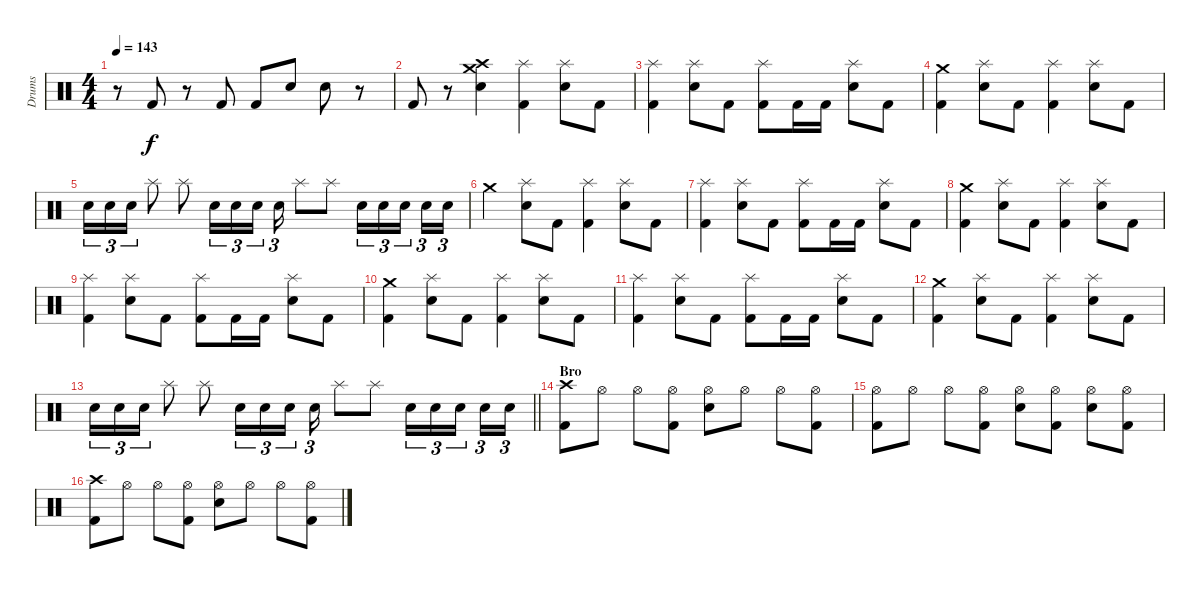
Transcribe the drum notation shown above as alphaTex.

\track ("Drums" "Drums") {instrument percussion}
\staff {score}
\articulation defaults
\ts (4 4)
\tempo 143
\clef neutral
\ks c
r.8{dy f} "Kick (hit) 2".8 r.8 "Kick (hit) 2".8 "Kick (hit) 2".8 "Snare (hit) 2".8 "Snare (hit) 2".8 r.8 |
"Kick (hit) 2".8 r.8 ("Crash high (hit)" "Crash medium (hit)" "Snare (hit) 2").4 ("Splash (hit)" "Kick (hit) 2").4 ("Splash (hit)" "Snare (hit) 2").8 "Kick (hit) 2".8 |
("Splash (hit)" "Kick (hit) 2").4 ("Splash (hit)" "Snare (hit) 2").8 "Kick (hit) 2".8 ("Splash (hit)" "Kick (hit) 2").8 "Kick (hit) 2".16 "Kick (hit) 2".16 ("Splash (hit)" "Snare (hit) 2").8 "Kick (hit) 2".8 |
("Crash medium (hit)" "Kick (hit) 2").4 ("Splash (hit)" "Snare (hit) 2").8 "Kick (hit) 2".8 ("Splash (hit)" "Kick (hit) 2").4 ("Splash (hit)" "Snare (hit) 2").8 "Kick (hit) 2".8 |
"Snare (hit) 2".16{tu (3 2)} "Snare (hit) 2".16{tu (3 2)} "Snare (hit) 2".16{tu (3 2)} "Splash (hit)".8 "Splash (hit)".8 "Snare (hit) 2".16{tu (3 2)} "Snare (hit) 2".16{tu (3 2)} "Snare (hit) 2".16{tu (3 2)} "Snare (hit) 2".16{tu (3 2)} "Splash (hit)".8 "Splash (hit)".8 "Snare (hit) 2".16{tu (3 2)} "Snare (hit) 2".16{tu (3 2)} "Snare (hit) 2".16{tu (3 2) beam splitsecondary} "Snare (hit) 2".16{tu (3 2)} "Snare (hit) 2".16{tu (3 2)} |
"Crash medium (hit)".4 ("Splash (hit)" "Snare (hit) 2").8 "Kick (hit) 2".8 ("Splash (hit)" "Kick (hit) 2").4 ("Splash (hit)" "Snare (hit) 2").8 "Kick (hit) 2".8 |
("Splash (hit)" "Kick (hit) 2").4 ("Splash (hit)" "Snare (hit) 2").8 "Kick (hit) 2".8 ("Splash (hit)" "Kick (hit) 2").8 "Kick (hit) 2".16 "Kick (hit) 2".16 ("Splash (hit)" "Snare (hit) 2").8 "Kick (hit) 2".8 |
("Crash medium (hit)" "Kick (hit) 2").4 ("Splash (hit)" "Snare (hit) 2").8 "Kick (hit) 2".8 ("Splash (hit)" "Kick (hit) 2").4 ("Splash (hit)" "Snare (hit) 2").8 "Kick (hit) 2".8 |
("Splash (hit)" "Kick (hit) 2").4 ("Splash (hit)" "Snare (hit) 2").8 "Kick (hit) 2".8 ("Splash (hit)" "Kick (hit) 2").8 "Kick (hit) 2".16 "Kick (hit) 2".16 ("Splash (hit)" "Snare (hit) 2").8 "Kick (hit) 2".8 |
("Crash medium (hit)" "Kick (hit) 2").4 ("Splash (hit)" "Snare (hit) 2").8 "Kick (hit) 2".8 ("Splash (hit)" "Kick (hit) 2").4 ("Splash (hit)" "Snare (hit) 2").8 "Kick (hit) 2".8 |
("Splash (hit)" "Kick (hit) 2").4 ("Splash (hit)" "Snare (hit) 2").8 "Kick (hit) 2".8 ("Splash (hit)" "Kick (hit) 2").8 "Kick (hit) 2".16 "Kick (hit) 2".16 ("Splash (hit)" "Snare (hit) 2").8 "Kick (hit) 2".8 |
("Crash medium (hit)" "Kick (hit) 2").4 ("Splash (hit)" "Snare (hit) 2").8 "Kick (hit) 2".8 ("Splash (hit)" "Kick (hit) 2").4 ("Splash (hit)" "Snare (hit) 2").8 "Kick (hit) 2".8 |
\barLineRight lightlight "Snare (hit) 2".16{tu (3 2)} "Snare (hit) 2".16{tu (3 2)} "Snare (hit) 2".16{tu (3 2)} "Splash (hit)".8 "Splash (hit)".8 "Snare (hit) 2".16{tu (3 2)} "Snare (hit) 2".16{tu (3 2)} "Snare (hit) 2".16{tu (3 2)} "Snare (hit) 2".16{tu (3 2)} "Splash (hit)".8 "Splash (hit)".8 "Snare (hit) 2".16{tu (3 2)} "Snare (hit) 2".16{tu (3 2)} "Snare (hit) 2".16{tu (3 2) beam splitsecondary} "Snare (hit) 2".16{tu (3 2)} "Snare (hit) 2".16{tu (3 2)}
|
\section ("" "Bro")
("Crash high (hit)" "Kick (hit) 2").8 "Hi-Hat (open)".8 "Hi-Hat (open)".8 ("Hi-Hat (open)" "Kick (hit) 2").8 ("Hi-Hat (open)" "Snare (hit) 2").8 "Hi-Hat (open)".8 "Hi-Hat (open)".8 ("Hi-Hat (open)" "Kick (hit) 2").8 |
("Hi-Hat (open)" "Kick (hit) 2").8 "Hi-Hat (open)".8 "Hi-Hat (open)".8 ("Hi-Hat (open)" "Kick (hit) 2").8 ("Hi-Hat (open)" "Snare (hit) 2").8 ("Hi-Hat (open)" "Kick (hit) 2").8 ("Hi-Hat (open)" "Snare (hit) 2").8 ("Hi-Hat (open)" "Kick (hit) 2").8 |
("Crash high (hit)" "Kick (hit) 2").8 "Hi-Hat (open)".8 "Hi-Hat (open)".8 ("Hi-Hat (open)" "Kick (hit) 2").8 ("Hi-Hat (open)" "Snare (hit) 2").8 "Hi-Hat (open)".8 "Hi-Hat (open)".8 ("Hi-Hat (open)" "Kick (hit) 2").8
